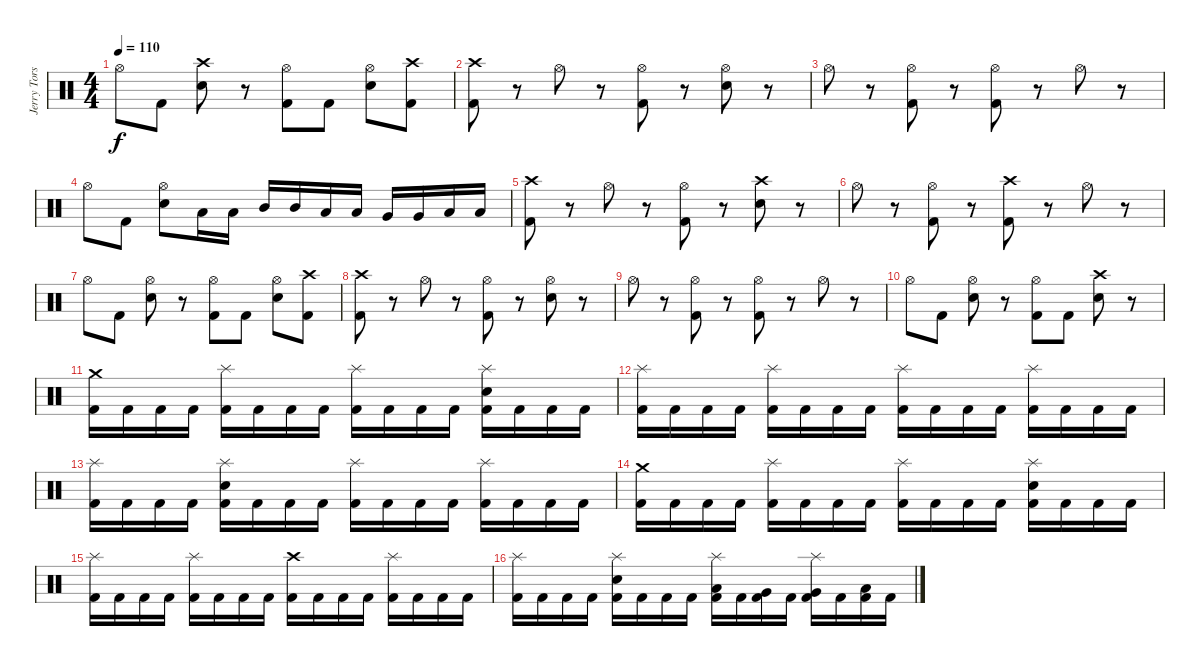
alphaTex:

\track ("Jerry Torstensson" "Jerry Tors") {instrument percussion}
\staff {score}
\articulation defaults
\ts (4 4)
\tempo 110
\clef neutral
\ks c "Hi-Hat (open)".8{dy f} "Kick (hit) 2".8
("Crash high (hit)" "Electric Snare (hit)").8 r.8 ("Hi-Hat (open)" "Kick (hit) 2").8 "Kick (hit) 2".8 ("Hi-Hat (open)" "Electric Snare (hit)").8 ("Crash high (hit)" "Kick (hit) 2").8 |
("Crash high (hit)" "Kick (hit) 2").8 r.8 "Hi-Hat (open)".8 r.8 ("Hi-Hat (open)" "Kick (hit) 2").8 r.8 ("Hi-Hat (open)" "Electric Snare (hit)").8 r.8 |
"Hi-Hat (open)".8 r.8 ("Hi-Hat (open)" "Kick (hit) 2").8 r.8 ("Hi-Hat (open)" "Kick (hit) 2").8 r.8 "Hi-Hat (open)".8 r.8 |
"Hi-Hat (open)".8 "Kick (hit) 2".8 ("Hi-Hat (open)" "Electric Snare (hit)").8 "Low Tom (hit)".16 "Low Tom (hit)".16 "Mid Tom (hit)".16 "Mid Tom (hit)".16 "Low Tom (hit)".16 "Low Tom (hit)".16 "Very Low Tom (hit)".16 "Very Low Tom (hit)".16 "Low Floor Tom (hit)".16 "Low Floor Tom (hit)".16 |
("Crash high (hit)" "Kick (hit) 2").8 r.8 "Hi-Hat (open)".8 r.8 ("Hi-Hat (open)" "Kick (hit) 2").8 r.8 ("Crash high (hit)" "Electric Snare (hit)").8 r.8 |
"Hi-Hat (open)".8 r.8 ("Hi-Hat (open)" "Kick (hit) 2").8 r.8 ("Crash high (hit)" "Kick (hit) 2").8 r.8 "Hi-Hat (open)".8 r.8 |
"Hi-Hat (open)".8 "Kick (hit) 2".8 ("Hi-Hat (open)" "Electric Snare (hit)").8 r.8 ("Hi-Hat (open)" "Kick (hit) 2").8 "Kick (hit) 2".8 ("Hi-Hat (open)" "Electric Snare (hit)").8 ("Crash high (hit)" "Kick (hit) 2").8 |
("Crash high (hit)" "Kick (hit) 2").8 r.8 "Hi-Hat (open)".8 r.8 ("Hi-Hat (open)" "Kick (hit) 2").8 r.8 ("Hi-Hat (open)" "Electric Snare (hit)").8 r.8 |
"Hi-Hat (open)".8 r.8 ("Hi-Hat (open)" "Kick (hit) 2").8 r.8 ("Hi-Hat (open)" "Kick (hit) 2").8 r.8 "Hi-Hat (open)".8 r.8 |
"Hi-Hat (open)".8 "Kick (hit) 2".8 ("Hi-Hat (open)" "Electric Snare (hit)").8 r.8 ("Hi-Hat (open)" "Kick (hit) 2").8 "Kick (hit) 2".8 ("Crash high (hit)" "Electric Snare (hit)").8 r.8 |
("Crash medium (hit)" "Kick (hit) 2").16 "Kick (hit) 2".16 "Kick (hit) 2".16 "Kick (hit) 2".16 ("Splash (hit)" "Kick (hit) 2").16 "Kick (hit) 2".16 "Kick (hit) 2".16 "Kick (hit) 2".16 ("Splash (hit)" "Kick (hit) 2").16 "Kick (hit) 2".16 "Kick (hit) 2".16 "Kick (hit) 2".16 ("Splash (hit)" "Electric Snare (hit)" "Kick (hit) 2").16 "Kick (hit) 2".16 "Kick (hit) 2".16 "Kick (hit) 2".16 |
("Splash (hit)" "Kick (hit) 2").16 "Kick (hit) 2".16 "Kick (hit) 2".16 "Kick (hit) 2".16 ("Splash (hit)" "Kick (hit) 2").16 "Kick (hit) 2".16 "Kick (hit) 2".16 "Kick (hit) 2".16 ("Splash (hit)" "Kick (hit) 2").16 "Kick (hit) 2".16 "Kick (hit) 2".16 "Kick (hit) 2".16 ("Splash (hit)" "Kick (hit) 2").16 "Kick (hit) 2".16 "Kick (hit) 2".16 "Kick (hit) 2".16 |
("Splash (hit)" "Kick (hit) 2").16 "Kick (hit) 2".16 "Kick (hit) 2".16 "Kick (hit) 2".16 ("Splash (hit)" "Electric Snare (hit)" "Kick (hit) 2").16 "Kick (hit) 2".16 "Kick (hit) 2".16 "Kick (hit) 2".16 ("Splash (hit)" "Kick (hit) 2").16 "Kick (hit) 2".16 "Kick (hit) 2".16 "Kick (hit) 2".16 ("Splash (hit)" "Kick (hit) 2").16 "Kick (hit) 2".16 "Kick (hit) 2".16 "Kick (hit) 2".16 |
("Crash medium (hit)" "Kick (hit) 2").16 "Kick (hit) 2".16 "Kick (hit) 2".16 "Kick (hit) 2".16 ("Splash (hit)" "Kick (hit) 2").16 "Kick (hit) 2".16 "Kick (hit) 2".16 "Kick (hit) 2".16 ("Splash (hit)" "Kick (hit) 2").16 "Kick (hit) 2".16 "Kick (hit) 2".16 "Kick (hit) 2".16 ("Splash (hit)" "Electric Snare (hit)" "Kick (hit) 2").16 "Kick (hit) 2".16 "Kick (hit) 2".16 "Kick (hit) 2".16 |
("Splash (hit)" "Kick (hit) 2").16 "Kick (hit) 2".16 "Kick (hit) 2".16 "Kick (hit) 2".16 ("Splash (hit)" "Kick (hit) 2").16 "Kick (hit) 2".16 "Kick (hit) 2".16 "Kick (hit) 2".16 ("Crash high (hit)" "Kick (hit) 2").16 "Kick (hit) 2".16 "Kick (hit) 2".16 "Kick (hit) 2".16 ("Splash (hit)" "Kick (hit) 2").16 "Kick (hit) 2".16 "Kick (hit) 2".16 "Kick (hit) 2".16 |
("Splash (hit)" "Kick (hit) 2").16 "Kick (hit) 2".16 "Kick (hit) 2".16 "Kick (hit) 2".16 ("Splash (hit)" "Electric Snare (hit)" "Kick (hit) 2").16 "Kick (hit) 2".16 "Kick (hit) 2".16 "Kick (hit) 2".16 ("Splash (hit)" "Low Tom (hit)" "Kick (hit) 2").16 "Kick (hit) 2".16 ("Very Low Tom (hit)" "Kick (hit) 2").16 "Kick (hit) 2".16 ("Splash (hit)" "Very Low Tom (hit)" "Kick (hit) 2").16 "Kick (hit) 2".16 ("Low Floor Tom (hit)" "Kick (hit) 2").16 "Kick (hit) 2".16
